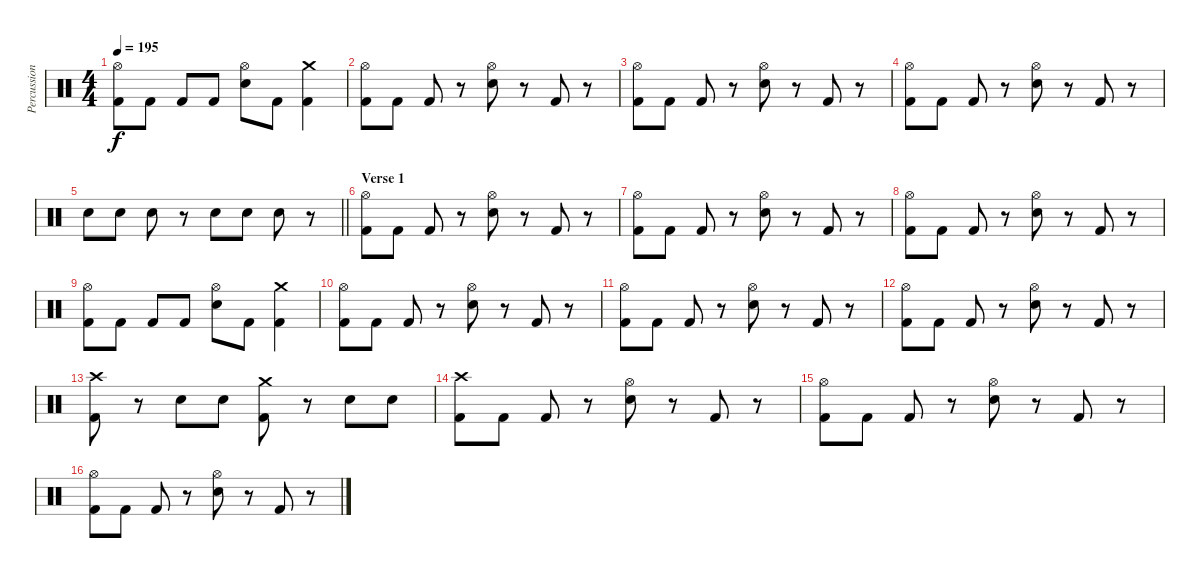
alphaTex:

\track ("Percussion" "Percussion") {instrument percussion}
\staff {score}
\articulation defaults
\ts (4 4)
\tempo 195
\clef neutral
\ks c
("Hi-Hat (open)" "Kick (hit) 2").8{dy f} "Kick (hit) 2".8 "Kick (hit) 2".8 "Kick (hit) 2".8 ("Hi-Hat (open)" "Snare (hit) 2").8 "Kick (hit) 2".8 ("Crash medium (hit)" "Kick (hit) 2").4 |
("Hi-Hat (open)" "Kick (hit) 2").8 "Kick (hit) 2".8 "Kick (hit) 2".8 r.8 ("Hi-Hat (open)" "Snare (hit) 2").8 r.8 "Kick (hit) 2".8 r.8 |
("Hi-Hat (open)" "Kick (hit) 2").8 "Kick (hit) 2".8 "Kick (hit) 2".8 r.8 ("Hi-Hat (open)" "Snare (hit) 2").8 r.8 "Kick (hit) 2".8 r.8 |
("Hi-Hat (open)" "Kick (hit) 2").8 "Kick (hit) 2".8 "Kick (hit) 2".8 r.8 ("Hi-Hat (open)" "Snare (hit) 2").8 r.8 "Kick (hit) 2".8 r.8 |
\barLineRight lightlight "Snare (hit) 2".8 "Snare (hit) 2".8 "Snare (hit) 2".8
r.8 "Snare (hit) 2".8 "Snare (hit) 2".8 "Snare (hit) 2".8 r.8 |
\section ("" "Verse 1")
("Hi-Hat (open)" "Kick (hit) 2").8 "Kick (hit) 2".8 "Kick (hit) 2".8 r.8 ("Hi-Hat (open)" "Snare (hit) 2").8 r.8 "Kick (hit) 2".8 r.8 |
("Hi-Hat (open)" "Kick (hit) 2").8 "Kick (hit) 2".8 "Kick (hit) 2".8 r.8 ("Hi-Hat (open)" "Snare (hit) 2").8 r.8 "Kick (hit) 2".8 r.8 |
("Hi-Hat (open)" "Kick (hit) 2").8 "Kick (hit) 2".8 "Kick (hit) 2".8 r.8 ("Hi-Hat (open)" "Snare (hit) 2").8 r.8 "Kick (hit) 2".8 r.8 |
("Hi-Hat (open)" "Kick (hit) 2").8 "Kick (hit) 2".8 "Kick (hit) 2".8 "Kick (hit) 2".8 ("Hi-Hat (open)" "Snare (hit) 2").8 "Kick (hit) 2".8 ("Crash medium (hit)" "Kick (hit) 2").4 |
("Hi-Hat (open)" "Kick (hit) 2").8 "Kick (hit) 2".8 "Kick (hit) 2".8 r.8 ("Hi-Hat (open)" "Snare (hit) 2").8 r.8 "Kick (hit) 2".8 r.8 |
("Hi-Hat (open)" "Kick (hit) 2").8 "Kick (hit) 2".8 "Kick (hit) 2".8 r.8 ("Hi-Hat (open)" "Snare (hit) 2").8 r.8 "Kick (hit) 2".8 r.8 |
("Hi-Hat (open)" "Kick (hit) 2").8 "Kick (hit) 2".8 "Kick (hit) 2".8 r.8 ("Hi-Hat (open)" "Snare (hit) 2").8 r.8 "Kick (hit) 2".8 r.8 |
("Crash high (hit)" "Kick (hit) 2").8 r.8 "Snare (hit) 2".8 "Snare (hit) 2".8 ("Crash medium (hit)" "Kick (hit) 2").8 r.8 "Snare (hit) 2".8 "Snare (hit) 2".8 |
("Crash high (hit)" "Kick (hit) 2").8 "Kick (hit) 2".8 "Kick (hit) 2".8 r.8 ("Hi-Hat (open)" "Snare (hit) 2").8 r.8 "Kick (hit) 2".8 r.8 |
("Hi-Hat (open)" "Kick (hit) 2").8 "Kick (hit) 2".8 "Kick (hit) 2".8 r.8 ("Hi-Hat (open)" "Snare (hit) 2").8 r.8 "Kick (hit) 2".8 r.8 |
("Hi-Hat (open)" "Kick (hit) 2").8 "Kick (hit) 2".8 "Kick (hit) 2".8 r.8 ("Hi-Hat (open)" "Snare (hit) 2").8 r.8 "Kick (hit) 2".8 r.8
